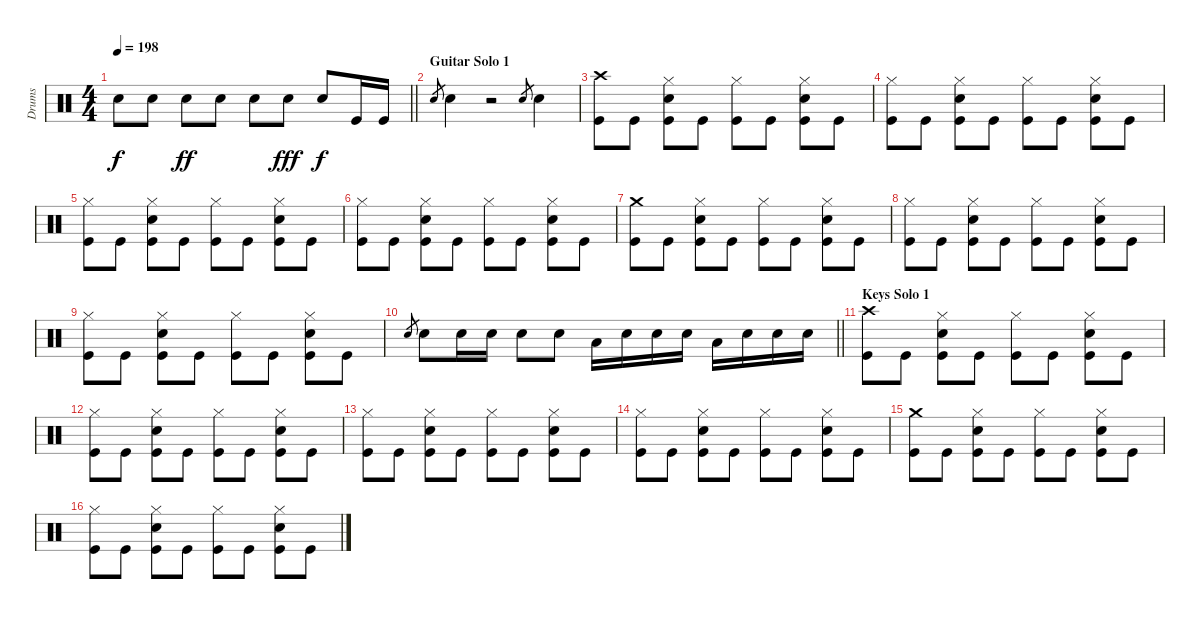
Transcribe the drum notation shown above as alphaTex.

\track ("Drums" "Drums") {instrument percussion}
\staff {score}
\articulation defaults
\ts (4 4)
\tempo 198
\clef neutral
\barLineRight lightlight
\ks c "Electric Snare (hit)".8{dy f} "Electric Snare (hit)".8 "Electric Snare (hit)".8{dy ff} "Electric Snare (hit)".8 "Electric Snare (hit)".8 "Electric Snare (hit)".8{dy fff} "Electric Snare (hit)".8{dy f} "Kick (hit)".16 "Kick (hit)".16
|
\section ("" "Guitar Solo 1")
"Electric Snare (hit)".8{gr} "Electric Snare (hit)".4 r.2 "Electric Snare (hit)".8{gr} "Electric Snare (hit)".4 |
("Crash high (hit)" "Kick (hit)").8 "Kick (hit)".8 ("Hi-Hat (closed)" "Electric Snare (hit)" "Kick (hit)").8 "Kick (hit)".8 ("Hi-Hat (closed)" "Kick (hit)").8 "Kick (hit)".8 ("Hi-Hat (closed)" "Electric Snare (hit)" "Kick (hit)").8 "Kick (hit)".8 |
("Hi-Hat (closed)" "Kick (hit)").8 "Kick (hit)".8 ("Hi-Hat (closed)" "Electric Snare (hit)" "Kick (hit)").8 "Kick (hit)".8 ("Hi-Hat (closed)" "Kick (hit)").8 "Kick (hit)".8 ("Hi-Hat (closed)" "Electric Snare (hit)" "Kick (hit)").8 "Kick (hit)".8 |
("Hi-Hat (closed)" "Kick (hit)").8 "Kick (hit)".8 ("Hi-Hat (closed)" "Electric Snare (hit)" "Kick (hit)").8 "Kick (hit)".8 ("Hi-Hat (closed)" "Kick (hit)").8 "Kick (hit)".8 ("Hi-Hat (closed)" "Electric Snare (hit)" "Kick (hit)").8 "Kick (hit)".8 |
("Hi-Hat (closed)" "Kick (hit)").8 "Kick (hit)".8 ("Hi-Hat (closed)" "Electric Snare (hit)" "Kick (hit)").8 "Kick (hit)".8 ("Hi-Hat (closed)" "Kick (hit)").8 "Kick (hit)".8 ("Hi-Hat (closed)" "Electric Snare (hit)" "Kick (hit)").8 "Kick (hit)".8 |
("Crash medium (hit)" "Kick (hit)").8 "Kick (hit)".8 ("Hi-Hat (closed)" "Electric Snare (hit)" "Kick (hit)").8 "Kick (hit)".8 ("Hi-Hat (closed)" "Kick (hit)").8 "Kick (hit)".8 ("Hi-Hat (closed)" "Electric Snare (hit)" "Kick (hit)").8 "Kick (hit)".8 |
("Hi-Hat (closed)" "Kick (hit)").8 "Kick (hit)".8 ("Hi-Hat (closed)" "Electric Snare (hit)" "Kick (hit)").8 "Kick (hit)".8 ("Hi-Hat (closed)" "Kick (hit)").8 "Kick (hit)".8 ("Hi-Hat (closed)" "Electric Snare (hit)" "Kick (hit)").8 "Kick (hit)".8 |
("Hi-Hat (closed)" "Kick (hit)").8 "Kick (hit)".8 ("Hi-Hat (closed)" "Electric Snare (hit)" "Kick (hit)").8 "Kick (hit)".8 ("Hi-Hat (closed)" "Kick (hit)").8 "Kick (hit)".8 ("Hi-Hat (closed)" "Electric Snare (hit)" "Kick (hit)").8 "Kick (hit)".8 |
\barLineRight lightlight "Electric Snare (hit)".8{gr} "Electric Snare (hit)".8 "Electric Snare (hit)".16 "Electric Snare (hit)".16 "Electric Snare (hit)".8 "Electric Snare (hit)".8 "Low Tom (hit)".16 "Electric Snare (hit)".16 "Electric Snare (hit)".16 "Electric Snare (hit)".16 "Low Tom (hit)".16 "Electric Snare (hit)".16 "Electric Snare (hit)".16 "Electric Snare (hit)".16
|
\section ("" "Keys Solo 1")
("Crash high (hit)" "Kick (hit)").8 "Kick (hit)".8 ("Hi-Hat (closed)" "Electric Snare (hit)" "Kick (hit)").8 "Kick (hit)".8 ("Hi-Hat (closed)" "Kick (hit)").8 "Kick (hit)".8 ("Hi-Hat (closed)" "Electric Snare (hit)" "Kick (hit)").8 "Kick (hit)".8 |
("Hi-Hat (closed)" "Kick (hit)").8 "Kick (hit)".8 ("Hi-Hat (closed)" "Electric Snare (hit)" "Kick (hit)").8 "Kick (hit)".8 ("Hi-Hat (closed)" "Kick (hit)").8 "Kick (hit)".8 ("Hi-Hat (closed)" "Electric Snare (hit)" "Kick (hit)").8 "Kick (hit)".8 |
("Hi-Hat (closed)" "Kick (hit)").8 "Kick (hit)".8 ("Hi-Hat (closed)" "Electric Snare (hit)" "Kick (hit)").8 "Kick (hit)".8 ("Hi-Hat (closed)" "Kick (hit)").8 "Kick (hit)".8 ("Hi-Hat (closed)" "Electric Snare (hit)" "Kick (hit)").8 "Kick (hit)".8 |
("Hi-Hat (closed)" "Kick (hit)").8 "Kick (hit)".8 ("Hi-Hat (closed)" "Electric Snare (hit)" "Kick (hit)").8 "Kick (hit)".8 ("Hi-Hat (closed)" "Kick (hit)").8 "Kick (hit)".8 ("Hi-Hat (closed)" "Electric Snare (hit)" "Kick (hit)").8 "Kick (hit)".8 |
("Crash medium (hit)" "Kick (hit)").8 "Kick (hit)".8 ("Hi-Hat (closed)" "Electric Snare (hit)" "Kick (hit)").8 "Kick (hit)".8 ("Hi-Hat (closed)" "Kick (hit)").8 "Kick (hit)".8 ("Hi-Hat (closed)" "Electric Snare (hit)" "Kick (hit)").8 "Kick (hit)".8 |
("Hi-Hat (closed)" "Kick (hit)").8 "Kick (hit)".8 ("Hi-Hat (closed)" "Electric Snare (hit)" "Kick (hit)").8 "Kick (hit)".8 ("Hi-Hat (closed)" "Kick (hit)").8 "Kick (hit)".8 ("Hi-Hat (closed)" "Electric Snare (hit)" "Kick (hit)").8 "Kick (hit)".8
